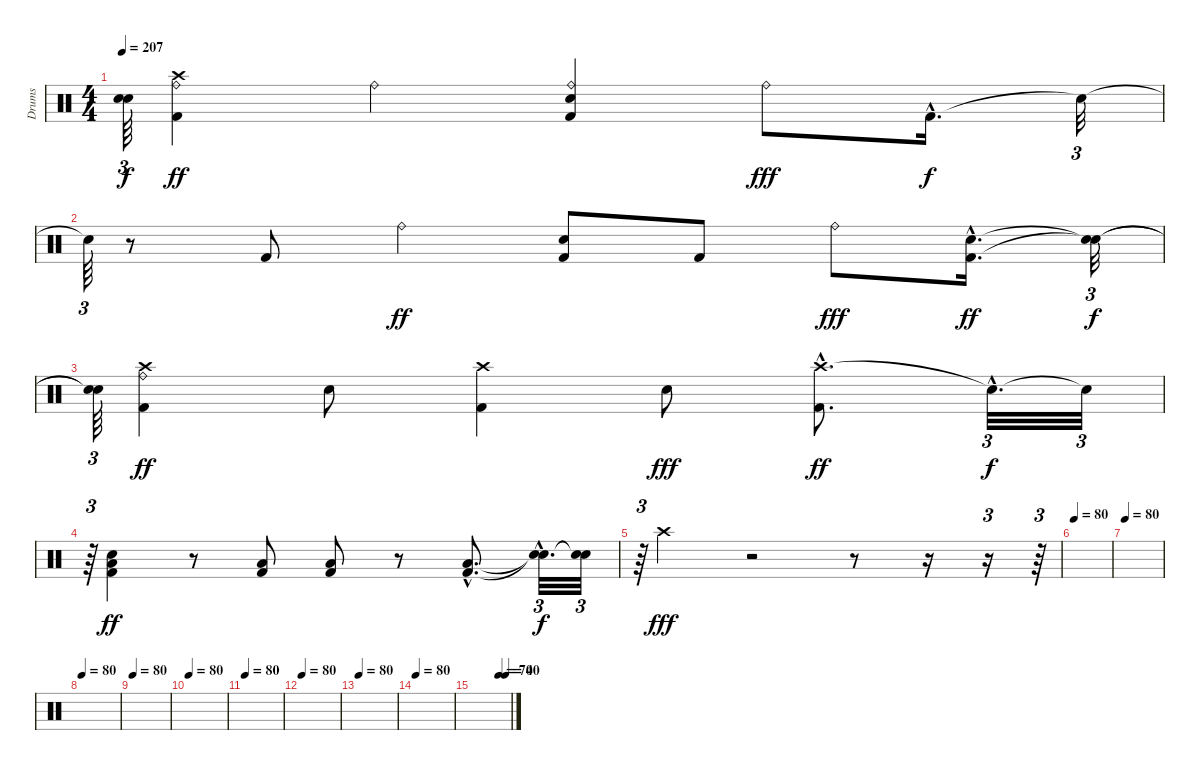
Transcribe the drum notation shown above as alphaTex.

\track ("Drums" "Drums") {instrument percussion}
\staff {score}
\articulation defaults
\ts (4 4)
\tempo 207
\clef neutral
\ks c
("Snare (hit)"{t} "Snare (hit)"{t}).64{tu (3 2) dy f} ("Crash high (hit)" "Ride (bell)" "Kick (hit) 2").4{dy ff} "Ride (bell)".4 ("Snare (hit) 2" "Kick (hit) 2" "Ride (bell)").4 "Ride (bell)".8{dy fff} "Kick (hit) 2"{hac}.16{d dy f} "Snare (hit)"{t}.32{tu (3 2)} |
"Snare (hit)"{t}.64{tu (3 2)} r.8 "Kick (hit) 2".8 "Ride (bell)".4{dy ff} ("Snare (hit) 2" "Kick (hit) 2").8 "Kick (hit) 2".8 "Ride (bell)".8{dy fff} ("Snare (hit) 2"{hac} "Kick (hit) 2"{hac}).16{d dy ff} ("Snare (hit)"{t} "Snare (hit)"{t}).32{tu (3 2) dy f} |
("Snare (hit)"{t} "Snare (hit)"{t}).64{tu (3 2)} ("Crash high (hit)" "Ride (bell)" "Kick (hit) 2").4{dy ff} "Snare (hit) 2".8 ("Crash high (hit)" "Kick (hit) 2").4 "Snare (hit) 2".8{dy fff} ("Crash high (hit)"{hac} "Kick (hit) 2").8{d dy ff} "Snare (hit)"{hac t}.32{d tu (3 2) dy f} "Snare (hit)"{t}.32{tu (3 2)} |
r.64{tu (3 2)} ("Low Tom (hit)" "Snare (hit) 2" "Kick (hit) 2").4{dy ff} r.8 ("Low Tom (hit)" "Kick (hit) 2").8 ("Low Tom (hit)" "Kick (hit) 2").8 r.8 ("Low Tom (hit)"{hac} "Kick (hit) 2"{hac}).8{d} ("Snare (hit)"{hac t} "Snare (hit)"{hac t}).32{d tu (3 2) dy f} ("Snare (hit)"{t} "Snare (hit)"{t}).32{tu (3 2)} |
r.64{tu (3 2)} "Crash high (hit)".4{dy fff} r.2 r.8 r.16 r.16{tu (3 2)} r.64{tu (3 2)} |
\tempo 80
|
\tempo 80
|
\tempo 80
|
\tempo 80
|
\tempo 80
|
\tempo 80
|
\tempo 80
|
\tempo 80
|
\tempo 80
|
\tempo (70 0.6875)
\tempo (40 0.875)
